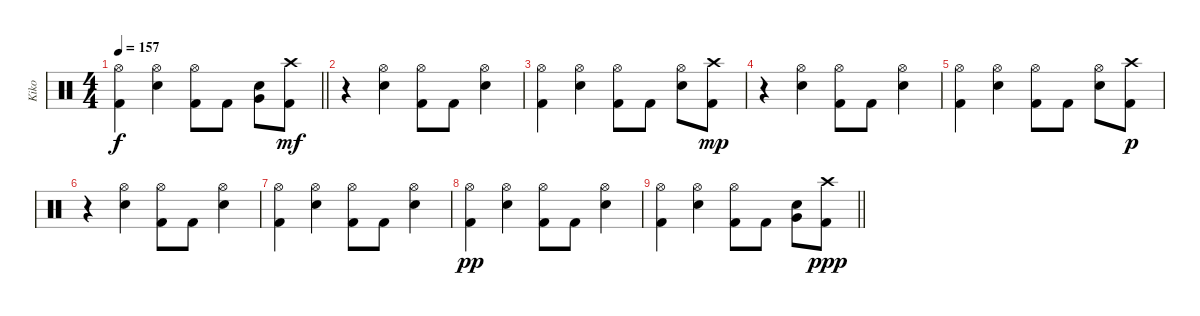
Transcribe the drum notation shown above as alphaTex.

\track ("Kiko" "Kiko") {instrument percussion}
\staff {score}
\articulation defaults
\ts (4 4)
\tempo 157
\clef neutral
\barLineRight lightlight
\ks c
("Hi-Hat (open)" "Kick (hit) 2").4{dy f} ("Hi-Hat (open)" "Electric Snare (hit)").4 ("Hi-Hat (open)" "Kick (hit) 2").8 "Kick (hit) 2".8 ("Very Low Tom (hit)" "Electric Snare (hit)").8 ("Crash high (hit)" "Kick (hit) 2").8{dy mf} |
r.4 ("Hi-Hat (open)" "Electric Snare (hit)").4 ("Hi-Hat (open)" "Kick (hit) 2").8 "Kick (hit) 2".8 ("Hi-Hat (open)" "Electric Snare (hit)").4 |
("Hi-Hat (open)" "Kick (hit) 2").4 ("Hi-Hat (open)" "Electric Snare (hit)").4 ("Hi-Hat (open)" "Kick (hit) 2").8 "Kick (hit) 2".8 ("Hi-Hat (open)" "Electric Snare (hit)").8 ("Crash high (hit)" "Kick (hit) 2").8{dy mp} |
r.4 ("Hi-Hat (open)" "Electric Snare (hit)").4 ("Hi-Hat (open)" "Kick (hit) 2").8 "Kick (hit) 2".8 ("Hi-Hat (open)" "Electric Snare (hit)").4 |
("Hi-Hat (open)" "Kick (hit) 2").4 ("Hi-Hat (open)" "Electric Snare (hit)").4 ("Hi-Hat (open)" "Kick (hit) 2").8 "Kick (hit) 2".8 ("Hi-Hat (open)" "Electric Snare (hit)").8 ("Crash high (hit)" "Kick (hit) 2").8{dy p} |
r.4 ("Hi-Hat (open)" "Electric Snare (hit)").4 ("Hi-Hat (open)" "Kick (hit) 2").8 "Kick (hit) 2".8 ("Hi-Hat (open)" "Electric Snare (hit)").4 |
("Hi-Hat (open)" "Kick (hit) 2").4 ("Hi-Hat (open)" "Electric Snare (hit)").4 ("Hi-Hat (open)" "Kick (hit) 2").8 "Kick (hit) 2".8 ("Hi-Hat (open)" "Electric Snare (hit)").4 |
("Hi-Hat (open)" "Kick (hit) 2").4{dy pp} ("Hi-Hat (open)" "Electric Snare (hit)").4 ("Hi-Hat (open)" "Kick (hit) 2").8 "Kick (hit) 2".8 ("Hi-Hat (open)" "Electric Snare (hit)").4 |
\barLineRight lightlight
("Hi-Hat (open)" "Kick (hit) 2").4 ("Hi-Hat (open)" "Electric Snare (hit)").4 ("Hi-Hat (open)" "Kick (hit) 2").8 "Kick (hit) 2".8 ("Very Low Tom (hit)" "Electric Snare (hit)").8 ("Crash high (hit)" "Kick (hit) 2").8{dy ppp}
